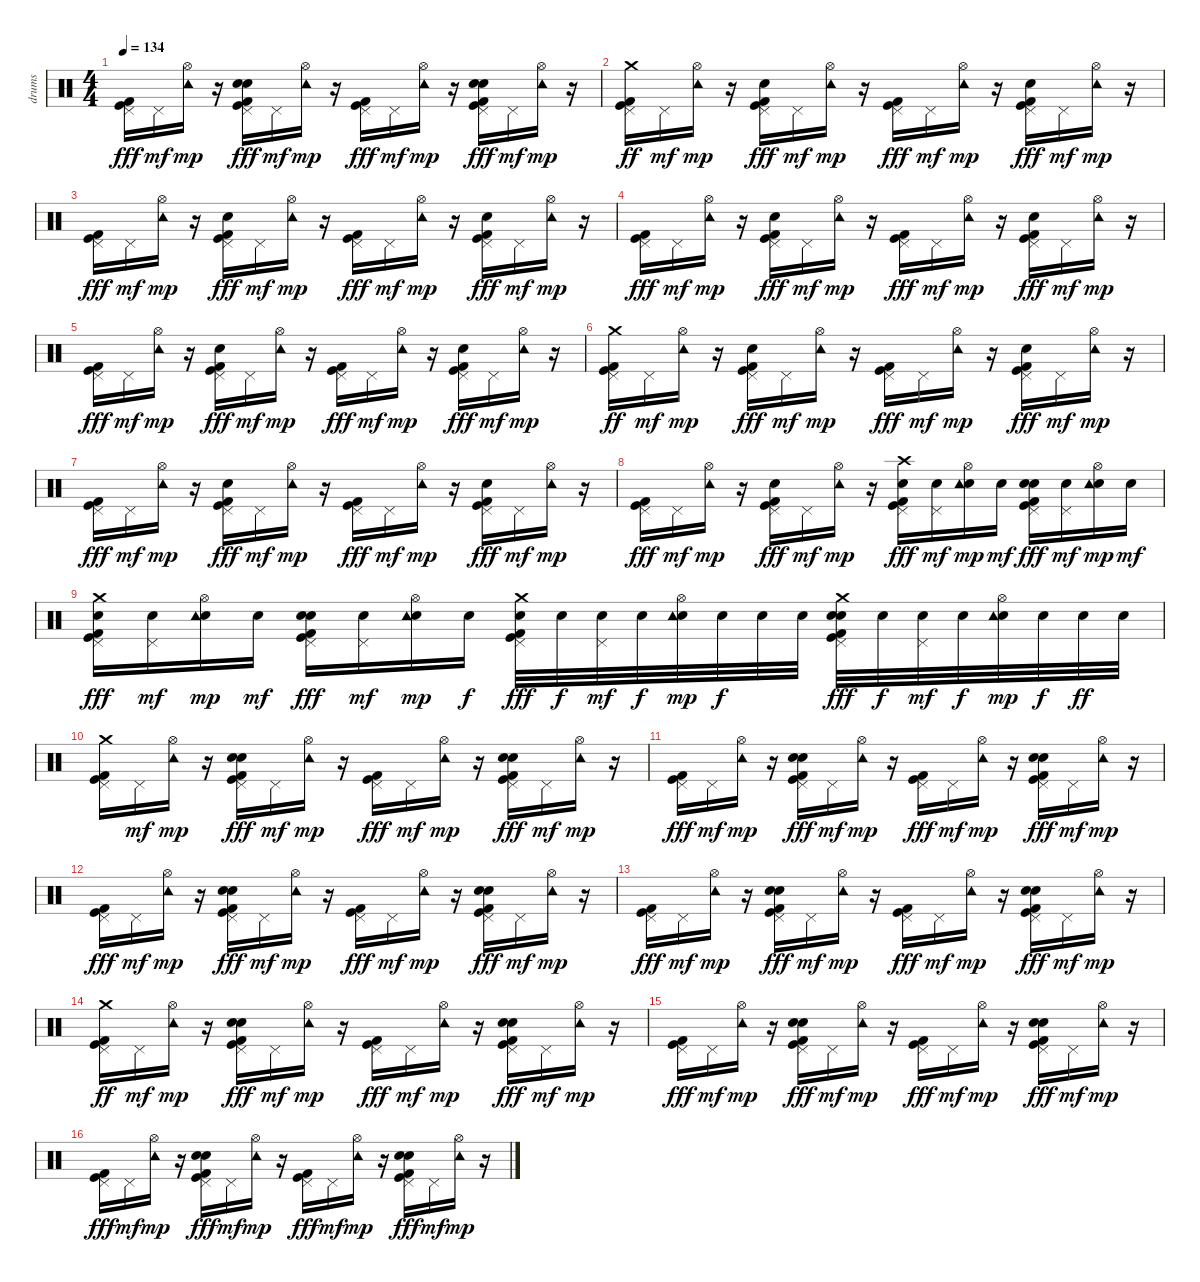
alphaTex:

\track ("drums" "drums") {instrument percussion}
\staff {score}
\articulation defaults
\ts (4 4)
\tempo 134
\clef neutral
\ks c
("Kick (hit)" "Kick (hit) 2" "Pedal Hi-Hat (hit)").16{dy fff} "Pedal Hi-Hat (hit)".16{dy mf} ("Hi-Hat (open)" "Tambourine (hit)").16{dy mp} r.16 ("Electric Snare (hit)" "Kick (hit)" "Kick (hit) 2" "Hand Clap (hit)" "Pedal Hi-Hat (hit)").16{dy fff} "Pedal Hi-Hat (hit)".16{dy mf} ("Hi-Hat (open)" "Tambourine (hit)").16{dy mp} r.16 ("Kick (hit)" "Kick (hit) 2" "Pedal Hi-Hat (hit)").16{dy fff} "Pedal Hi-Hat (hit)".16{dy mf} ("Hi-Hat (open)" "Tambourine (hit)").16{dy mp} r.16 ("Electric Snare (hit)" "Kick (hit)" "Kick (hit) 2" "Hand Clap (hit)" "Pedal Hi-Hat (hit)").16{dy fff} "Pedal Hi-Hat (hit)".16{dy mf} ("Hi-Hat (open)" "Tambourine (hit)").16{dy mp} r.16 |
("Kick (hit)" "Kick (hit) 2" "Pedal Hi-Hat (hit)" "Crash medium (hit)").16{dy ff} "Pedal Hi-Hat (hit)".16{dy mf} ("Hi-Hat (open)" "Tambourine (hit)").16{dy mp} r.16 ("Kick (hit)" "Kick (hit) 2" "Hand Clap (hit)" "Pedal Hi-Hat (hit)").16{dy fff} "Pedal Hi-Hat (hit)".16{dy mf} ("Hi-Hat (open)" "Tambourine (hit)").16{dy mp} r.16 ("Kick (hit)" "Kick (hit) 2" "Pedal Hi-Hat (hit)").16{dy fff} "Pedal Hi-Hat (hit)".16{dy mf} ("Hi-Hat (open)" "Tambourine (hit)").16{dy mp} r.16 ("Kick (hit)" "Kick (hit) 2" "Hand Clap (hit)" "Pedal Hi-Hat (hit)").16{dy fff} "Pedal Hi-Hat (hit)".16{dy mf} ("Hi-Hat (open)" "Tambourine (hit)").16{dy mp} r.16 |
("Kick (hit)" "Kick (hit) 2" "Pedal Hi-Hat (hit)").16{dy fff} "Pedal Hi-Hat (hit)".16{dy mf} ("Hi-Hat (open)" "Tambourine (hit)").16{dy mp} r.16 ("Kick (hit)" "Kick (hit) 2" "Hand Clap (hit)" "Pedal Hi-Hat (hit)").16{dy fff} "Pedal Hi-Hat (hit)".16{dy mf} ("Hi-Hat (open)" "Tambourine (hit)").16{dy mp} r.16 ("Kick (hit)" "Kick (hit) 2" "Pedal Hi-Hat (hit)").16{dy fff} "Pedal Hi-Hat (hit)".16{dy mf} ("Hi-Hat (open)" "Tambourine (hit)").16{dy mp} r.16 ("Kick (hit)" "Kick (hit) 2" "Hand Clap (hit)" "Pedal Hi-Hat (hit)").16{dy fff} "Pedal Hi-Hat (hit)".16{dy mf} ("Hi-Hat (open)" "Tambourine (hit)").16{dy mp} r.16 |
("Kick (hit)" "Kick (hit) 2" "Pedal Hi-Hat (hit)").16{dy fff} "Pedal Hi-Hat (hit)".16{dy mf} ("Hi-Hat (open)" "Tambourine (hit)").16{dy mp} r.16 ("Kick (hit)" "Kick (hit) 2" "Hand Clap (hit)" "Pedal Hi-Hat (hit)").16{dy fff} "Pedal Hi-Hat (hit)".16{dy mf} ("Hi-Hat (open)" "Tambourine (hit)").16{dy mp} r.16 ("Kick (hit)" "Kick (hit) 2" "Pedal Hi-Hat (hit)").16{dy fff} "Pedal Hi-Hat (hit)".16{dy mf} ("Hi-Hat (open)" "Tambourine (hit)").16{dy mp} r.16 ("Kick (hit)" "Kick (hit) 2" "Hand Clap (hit)" "Pedal Hi-Hat (hit)").16{dy fff} "Pedal Hi-Hat (hit)".16{dy mf} ("Hi-Hat (open)" "Tambourine (hit)").16{dy mp} r.16 |
("Kick (hit)" "Kick (hit) 2" "Pedal Hi-Hat (hit)").16{dy fff} "Pedal Hi-Hat (hit)".16{dy mf} ("Hi-Hat (open)" "Tambourine (hit)").16{dy mp} r.16 ("Kick (hit)" "Kick (hit) 2" "Hand Clap (hit)" "Pedal Hi-Hat (hit)").16{dy fff} "Pedal Hi-Hat (hit)".16{dy mf} ("Hi-Hat (open)" "Tambourine (hit)").16{dy mp} r.16 ("Kick (hit)" "Kick (hit) 2" "Pedal Hi-Hat (hit)").16{dy fff} "Pedal Hi-Hat (hit)".16{dy mf} ("Hi-Hat (open)" "Tambourine (hit)").16{dy mp} r.16 ("Kick (hit)" "Kick (hit) 2" "Hand Clap (hit)" "Pedal Hi-Hat (hit)").16{dy fff} "Pedal Hi-Hat (hit)".16{dy mf} ("Hi-Hat (open)" "Tambourine (hit)").16{dy mp} r.16 |
("Kick (hit)" "Kick (hit) 2" "Pedal Hi-Hat (hit)" "Crash medium (hit)").16{dy ff} "Pedal Hi-Hat (hit)".16{dy mf} ("Hi-Hat (open)" "Tambourine (hit)").16{dy mp} r.16 ("Kick (hit)" "Kick (hit) 2" "Hand Clap (hit)" "Pedal Hi-Hat (hit)").16{dy fff} "Pedal Hi-Hat (hit)".16{dy mf} ("Hi-Hat (open)" "Tambourine (hit)").16{dy mp} r.16 ("Kick (hit)" "Kick (hit) 2" "Pedal Hi-Hat (hit)").16{dy fff} "Pedal Hi-Hat (hit)".16{dy mf} ("Hi-Hat (open)" "Tambourine (hit)").16{dy mp} r.16 ("Kick (hit)" "Kick (hit) 2" "Hand Clap (hit)" "Pedal Hi-Hat (hit)").16{dy fff} "Pedal Hi-Hat (hit)".16{dy mf} ("Hi-Hat (open)" "Tambourine (hit)").16{dy mp} r.16 |
("Kick (hit)" "Kick (hit) 2" "Pedal Hi-Hat (hit)").16{dy fff} "Pedal Hi-Hat (hit)".16{dy mf} ("Hi-Hat (open)" "Tambourine (hit)").16{dy mp} r.16 ("Kick (hit)" "Kick (hit) 2" "Hand Clap (hit)" "Pedal Hi-Hat (hit)").16{dy fff} "Pedal Hi-Hat (hit)".16{dy mf} ("Hi-Hat (open)" "Tambourine (hit)").16{dy mp} r.16 ("Kick (hit)" "Kick (hit) 2" "Pedal Hi-Hat (hit)").16{dy fff} "Pedal Hi-Hat (hit)".16{dy mf} ("Hi-Hat (open)" "Tambourine (hit)").16{dy mp} r.16 ("Kick (hit)" "Kick (hit) 2" "Hand Clap (hit)" "Pedal Hi-Hat (hit)").16{dy fff} "Pedal Hi-Hat (hit)".16{dy mf} ("Hi-Hat (open)" "Tambourine (hit)").16{dy mp} r.16 |
("Kick (hit)" "Kick (hit) 2" "Pedal Hi-Hat (hit)").16{dy fff} "Pedal Hi-Hat (hit)".16{dy mf} ("Hi-Hat (open)" "Tambourine (hit)").16{dy mp} r.16 ("Kick (hit)" "Kick (hit) 2" "Hand Clap (hit)" "Pedal Hi-Hat (hit)").16{dy fff} "Pedal Hi-Hat (hit)".16{dy mf} ("Hi-Hat (open)" "Tambourine (hit)").16{dy mp} r.16 ("Crash high (hit)" "Electric Snare (hit)" "Kick (hit)" "Kick (hit) 2" "Pedal Hi-Hat (hit)").16{dy fff} ("Electric Snare (hit)" "Pedal Hi-Hat (hit)").16{dy mf} ("Electric Snare (hit)" "Hi-Hat (open)" "Tambourine (hit)").16{dy mp} "Electric Snare (hit)".16{dy mf} ("Electric Snare (hit)" "Kick (hit)" "Kick (hit) 2" "Hand Clap (hit)" "Pedal Hi-Hat (hit)").16{dy fff} ("Electric Snare (hit)" "Pedal Hi-Hat (hit)").16{dy mf} ("Electric Snare (hit)" "Hi-Hat (open)" "Tambourine (hit)").16{dy mp} "Electric Snare (hit)".16{dy mf} |
("Crash medium (hit)" "Electric Snare (hit)" "Kick (hit)" "Kick (hit) 2" "Pedal Hi-Hat (hit)").16{dy fff} ("Electric Snare (hit)" "Pedal Hi-Hat (hit)").16{dy mf} ("Electric Snare (hit)" "Hi-Hat (open)" "Tambourine (hit)").16{dy mp} "Electric Snare (hit)".16{dy mf} ("Electric Snare (hit)" "Kick (hit)" "Kick (hit) 2" "Hand Clap (hit)" "Pedal Hi-Hat (hit)").16{dy fff} ("Electric Snare (hit)" "Pedal Hi-Hat (hit)").16{dy mf} ("Electric Snare (hit)" "Hi-Hat (open)" "Tambourine (hit)").16{dy mp} "Electric Snare (hit)".16{dy f} ("Crash medium (hit)" "Electric Snare (hit)" "Kick (hit)" "Kick (hit) 2" "Pedal Hi-Hat (hit)").32{dy fff} "Electric Snare (hit)".32{dy f} ("Electric Snare (hit)" "Pedal Hi-Hat (hit)").32{dy mf} "Electric Snare (hit)".32{dy f} ("Electric Snare (hit)" "Hi-Hat (open)" "Tambourine (hit)").32{dy mp} "Electric Snare (hit)".32{dy f} "Electric Snare (hit)".32 "Electric Snare (hit)".32 ("Crash medium (hit)" "Electric Snare (hit)" "Kick (hit)" "Kick (hit) 2" "Hand Clap (hit)" "Pedal Hi-Hat (hit)").32{dy fff} "Electric Snare (hit)".32{dy f} ("Electric Snare (hit)" "Pedal Hi-Hat (hit)").32{dy mf} "Electric Snare (hit)".32{dy f} ("Electric Snare (hit)" "Hi-Hat (open)" "Tambourine (hit)").32{dy mp} "Electric Snare (hit)".32{dy f} "Electric Snare (hit)".32{dy ff} "Electric Snare (hit)".32 |
("Kick (hit)" "Kick (hit) 2" "Pedal Hi-Hat (hit)" "Crash medium (hit)").16 "Pedal Hi-Hat (hit)".16{dy mf} ("Hi-Hat (open)" "Tambourine (hit)").16{dy mp} r.16 ("Electric Snare (hit)" "Kick (hit)" "Kick (hit) 2" "Hand Clap (hit)" "Pedal Hi-Hat (hit)").16{dy fff} "Pedal Hi-Hat (hit)".16{dy mf} ("Hi-Hat (open)" "Tambourine (hit)").16{dy mp} r.16 ("Kick (hit)" "Kick (hit) 2" "Pedal Hi-Hat (hit)").16{dy fff} "Pedal Hi-Hat (hit)".16{dy mf} ("Hi-Hat (open)" "Tambourine (hit)").16{dy mp} r.16 ("Electric Snare (hit)" "Kick (hit)" "Kick (hit) 2" "Hand Clap (hit)" "Pedal Hi-Hat (hit)").16{dy fff} "Pedal Hi-Hat (hit)".16{dy mf} ("Hi-Hat (open)" "Tambourine (hit)").16{dy mp} r.16 |
("Kick (hit)" "Kick (hit) 2" "Pedal Hi-Hat (hit)").16{dy fff} "Pedal Hi-Hat (hit)".16{dy mf} ("Hi-Hat (open)" "Tambourine (hit)").16{dy mp} r.16 ("Electric Snare (hit)" "Kick (hit)" "Kick (hit) 2" "Hand Clap (hit)" "Pedal Hi-Hat (hit)").16{dy fff} "Pedal Hi-Hat (hit)".16{dy mf} ("Hi-Hat (open)" "Tambourine (hit)").16{dy mp} r.16 ("Kick (hit)" "Kick (hit) 2" "Pedal Hi-Hat (hit)").16{dy fff} "Pedal Hi-Hat (hit)".16{dy mf} ("Hi-Hat (open)" "Tambourine (hit)").16{dy mp} r.16 ("Electric Snare (hit)" "Kick (hit)" "Kick (hit) 2" "Hand Clap (hit)" "Pedal Hi-Hat (hit)").16{dy fff} "Pedal Hi-Hat (hit)".16{dy mf} ("Hi-Hat (open)" "Tambourine (hit)").16{dy mp} r.16 |
("Kick (hit)" "Kick (hit) 2" "Pedal Hi-Hat (hit)").16{dy fff} "Pedal Hi-Hat (hit)".16{dy mf} ("Hi-Hat (open)" "Tambourine (hit)").16{dy mp} r.16 ("Electric Snare (hit)" "Kick (hit)" "Kick (hit) 2" "Hand Clap (hit)" "Pedal Hi-Hat (hit)").16{dy fff} "Pedal Hi-Hat (hit)".16{dy mf} ("Hi-Hat (open)" "Tambourine (hit)").16{dy mp} r.16 ("Kick (hit)" "Kick (hit) 2" "Pedal Hi-Hat (hit)").16{dy fff} "Pedal Hi-Hat (hit)".16{dy mf} ("Hi-Hat (open)" "Tambourine (hit)").16{dy mp} r.16 ("Electric Snare (hit)" "Kick (hit)" "Kick (hit) 2" "Hand Clap (hit)" "Pedal Hi-Hat (hit)").16{dy fff} "Pedal Hi-Hat (hit)".16{dy mf} ("Hi-Hat (open)" "Tambourine (hit)").16{dy mp} r.16 |
("Kick (hit)" "Kick (hit) 2" "Pedal Hi-Hat (hit)").16{dy fff} "Pedal Hi-Hat (hit)".16{dy mf} ("Hi-Hat (open)" "Tambourine (hit)").16{dy mp} r.16 ("Electric Snare (hit)" "Kick (hit)" "Kick (hit) 2" "Hand Clap (hit)" "Pedal Hi-Hat (hit)").16{dy fff} "Pedal Hi-Hat (hit)".16{dy mf} ("Hi-Hat (open)" "Tambourine (hit)").16{dy mp} r.16 ("Kick (hit)" "Kick (hit) 2" "Pedal Hi-Hat (hit)").16{dy fff} "Pedal Hi-Hat (hit)".16{dy mf} ("Hi-Hat (open)" "Tambourine (hit)").16{dy mp} r.16 ("Electric Snare (hit)" "Kick (hit)" "Kick (hit) 2" "Hand Clap (hit)" "Pedal Hi-Hat (hit)").16{dy fff} "Pedal Hi-Hat (hit)".16{dy mf} ("Hi-Hat (open)" "Tambourine (hit)").16{dy mp} r.16 |
("Kick (hit)" "Kick (hit) 2" "Pedal Hi-Hat (hit)" "Crash medium (hit)").16{dy ff} "Pedal Hi-Hat (hit)".16{dy mf} ("Hi-Hat (open)" "Tambourine (hit)").16{dy mp} r.16 ("Electric Snare (hit)" "Kick (hit)" "Kick (hit) 2" "Hand Clap (hit)" "Pedal Hi-Hat (hit)").16{dy fff} "Pedal Hi-Hat (hit)".16{dy mf} ("Hi-Hat (open)" "Tambourine (hit)").16{dy mp} r.16 ("Kick (hit)" "Kick (hit) 2" "Pedal Hi-Hat (hit)").16{dy fff} "Pedal Hi-Hat (hit)".16{dy mf} ("Hi-Hat (open)" "Tambourine (hit)").16{dy mp} r.16 ("Electric Snare (hit)" "Kick (hit)" "Kick (hit) 2" "Hand Clap (hit)" "Pedal Hi-Hat (hit)").16{dy fff} "Pedal Hi-Hat (hit)".16{dy mf} ("Hi-Hat (open)" "Tambourine (hit)").16{dy mp} r.16 |
("Kick (hit)" "Kick (hit) 2" "Pedal Hi-Hat (hit)").16{dy fff} "Pedal Hi-Hat (hit)".16{dy mf} ("Hi-Hat (open)" "Tambourine (hit)").16{dy mp} r.16 ("Electric Snare (hit)" "Kick (hit)" "Kick (hit) 2" "Hand Clap (hit)" "Pedal Hi-Hat (hit)").16{dy fff} "Pedal Hi-Hat (hit)".16{dy mf} ("Hi-Hat (open)" "Tambourine (hit)").16{dy mp} r.16 ("Kick (hit)" "Kick (hit) 2" "Pedal Hi-Hat (hit)").16{dy fff} "Pedal Hi-Hat (hit)".16{dy mf} ("Hi-Hat (open)" "Tambourine (hit)").16{dy mp} r.16 ("Electric Snare (hit)" "Kick (hit)" "Kick (hit) 2" "Hand Clap (hit)" "Pedal Hi-Hat (hit)").16{dy fff} "Pedal Hi-Hat (hit)".16{dy mf} ("Hi-Hat (open)" "Tambourine (hit)").16{dy mp} r.16 |
("Kick (hit)" "Kick (hit) 2" "Pedal Hi-Hat (hit)").16{dy fff} "Pedal Hi-Hat (hit)".16{dy mf} ("Hi-Hat (open)" "Tambourine (hit)").16{dy mp} r.16 ("Electric Snare (hit)" "Kick (hit)" "Kick (hit) 2" "Hand Clap (hit)" "Pedal Hi-Hat (hit)").16{dy fff} "Pedal Hi-Hat (hit)".16{dy mf} ("Hi-Hat (open)" "Tambourine (hit)").16{dy mp} r.16 ("Kick (hit)" "Kick (hit) 2" "Pedal Hi-Hat (hit)").16{dy fff} "Pedal Hi-Hat (hit)".16{dy mf} ("Hi-Hat (open)" "Tambourine (hit)").16{dy mp} r.16 ("Electric Snare (hit)" "Kick (hit)" "Kick (hit) 2" "Hand Clap (hit)" "Pedal Hi-Hat (hit)").16{dy fff} "Pedal Hi-Hat (hit)".16{dy mf} ("Hi-Hat (open)" "Tambourine (hit)").16{dy mp} r.16
